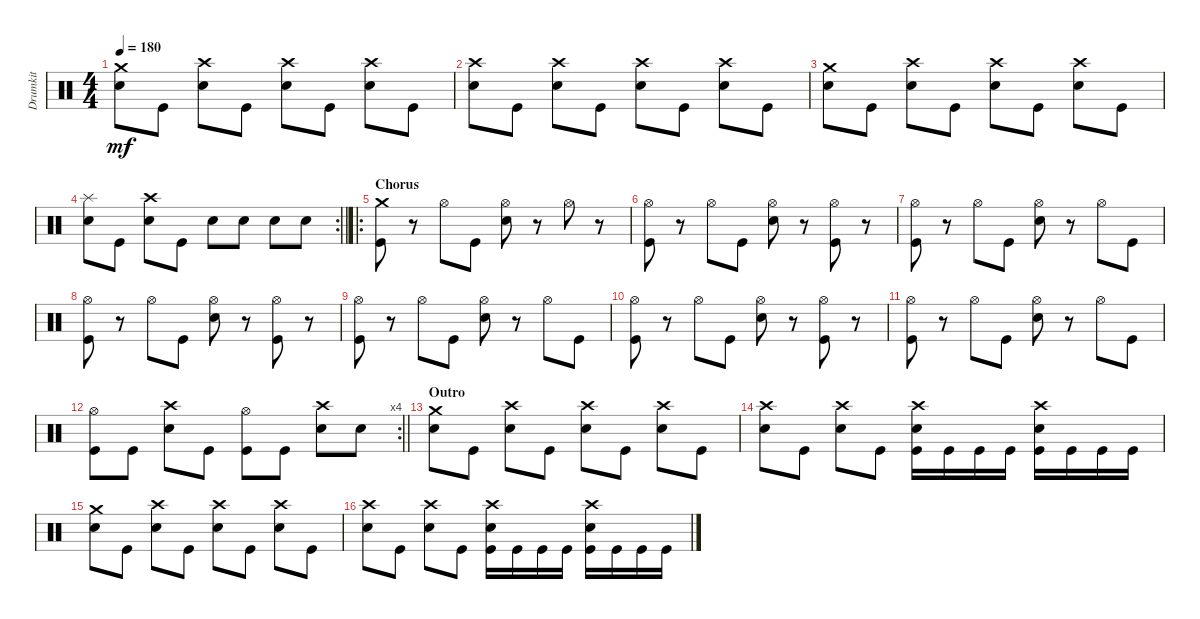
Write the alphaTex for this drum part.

\track ("Drumkit" "Drumkit") {instrument percussion}
\staff {score}
\articulation defaults
\ts (4 4)
\tempo 180
\clef neutral
\ks c
("Snare (hit) 2" "Crash medium (hit)").8{dy mf} "Kick (hit)".8 ("Snare (hit) 2" "Crash high (hit)").8 "Kick (hit)".8 ("Snare (hit) 2" "Crash high (hit)").8 "Kick (hit)".8 ("Snare (hit) 2" "Crash high (hit)").8 "Kick (hit)".8 |
("Snare (hit) 2" "Crash high (hit)").8 "Kick (hit)".8 ("Snare (hit) 2" "Crash high (hit)").8 "Kick (hit)".8 ("Snare (hit) 2" "Crash high (hit)").8 "Kick (hit)".8 ("Snare (hit) 2" "Crash high (hit)").8 "Kick (hit)".8 |
("Snare (hit) 2" "Crash medium (hit)").8 "Kick (hit)".8 ("Snare (hit) 2" "Crash high (hit)").8 "Kick (hit)".8 ("Snare (hit) 2" "Crash high (hit)").8 "Kick (hit)".8 ("Snare (hit) 2" "Crash high (hit)").8 "Kick (hit)".8 |
\rc 2
\barLineRight lightlight
("Snare (hit) 2" "Splash (hit)").8 "Kick (hit)".8 ("Snare (hit) 2" "Crash high (hit)").8 "Kick (hit)".8 "Snare (hit) 2".8 "Snare (hit) 2".8 "Snare (hit) 2".8 "Snare (hit) 2".8 |
\ro
\section ("" "Chorus")
("Kick (hit)" "Crash medium (hit)").8 r.8 "Hi-Hat (open)".8 "Kick (hit)".8 ("Snare (hit) 2" "Hi-Hat (open)").8 r.8 "Hi-Hat (open)".8 r.8 |
("Kick (hit)" "Hi-Hat (open)").8 r.8 "Hi-Hat (open)".8 "Kick (hit)".8 ("Snare (hit) 2" "Hi-Hat (open)").8 r.8 ("Kick (hit)" "Hi-Hat (open)").8 r.8 |
("Kick (hit)" "Hi-Hat (open)").8 r.8 "Hi-Hat (open)".8 "Kick (hit)".8 ("Snare (hit) 2" "Hi-Hat (open)").8 r.8 "Hi-Hat (open)".8 "Kick (hit)".8 |
("Kick (hit)" "Hi-Hat (open)").8 r.8 "Hi-Hat (open)".8 "Kick (hit)".8 ("Snare (hit) 2" "Hi-Hat (open)").8 r.8 ("Kick (hit)" "Hi-Hat (open)").8 r.8 |
("Kick (hit)" "Hi-Hat (open)").8 r.8 "Hi-Hat (open)".8 "Kick (hit)".8 ("Snare (hit) 2" "Hi-Hat (open)").8 r.8 "Hi-Hat (open)".8 "Kick (hit)".8 |
("Kick (hit)" "Hi-Hat (open)").8 r.8 "Hi-Hat (open)".8 "Kick (hit)".8 ("Snare (hit) 2" "Hi-Hat (open)").8 r.8 ("Kick (hit)" "Hi-Hat (open)").8 r.8 |
("Kick (hit)" "Hi-Hat (open)").8 r.8 "Hi-Hat (open)".8 "Kick (hit)".8 ("Snare (hit) 2" "Hi-Hat (open)").8 r.8 "Hi-Hat (open)".8 "Kick (hit)".8 |
\rc 4
\barLineRight lightlight
("Kick (hit)" "Hi-Hat (open)").8 "Kick (hit)".8 ("Snare (hit) 2" "Crash high (hit)").8 "Kick (hit)".8 ("Kick (hit)" "Hi-Hat (open)").8 "Kick (hit)".8 ("Snare (hit) 2" "Crash high (hit)").8 "Snare (hit) 2".8 |
\section ("" "Outro")
("Snare (hit) 2" "Crash medium (hit)").8 "Kick (hit)".8 ("Snare (hit) 2" "Crash high (hit)").8 "Kick (hit)".8 ("Snare (hit) 2" "Crash high (hit)").8 "Kick (hit)".8 ("Snare (hit) 2" "Crash high (hit)").8 "Kick (hit)".8 |
("Snare (hit) 2" "Crash high (hit)").8 "Kick (hit)".8 ("Snare (hit) 2" "Crash high (hit)").8 "Kick (hit)".8 ("Snare (hit) 2" "Crash high (hit)" "Kick (hit)").16 "Kick (hit)".16 "Kick (hit)".16 "Kick (hit)".16 ("Snare (hit) 2" "Crash high (hit)" "Kick (hit)").16 "Kick (hit)".16 "Kick (hit)".16 "Kick (hit)".16 |
("Snare (hit) 2" "Crash medium (hit)").8 "Kick (hit)".8 ("Snare (hit) 2" "Crash high (hit)").8 "Kick (hit)".8 ("Snare (hit) 2" "Crash high (hit)").8 "Kick (hit)".8 ("Snare (hit) 2" "Crash high (hit)").8 "Kick (hit)".8 |
("Snare (hit) 2" "Crash high (hit)").8 "Kick (hit)".8 ("Snare (hit) 2" "Crash high (hit)").8 "Kick (hit)".8 ("Kick (hit)" "Snare (hit) 2" "Crash high (hit)").16 "Kick (hit)".16 "Kick (hit)".16 "Kick (hit)".16 ("Kick (hit)" "Snare (hit) 2" "Crash high (hit)").16 "Kick (hit)".16 "Kick (hit)".16 "Kick (hit)".16
